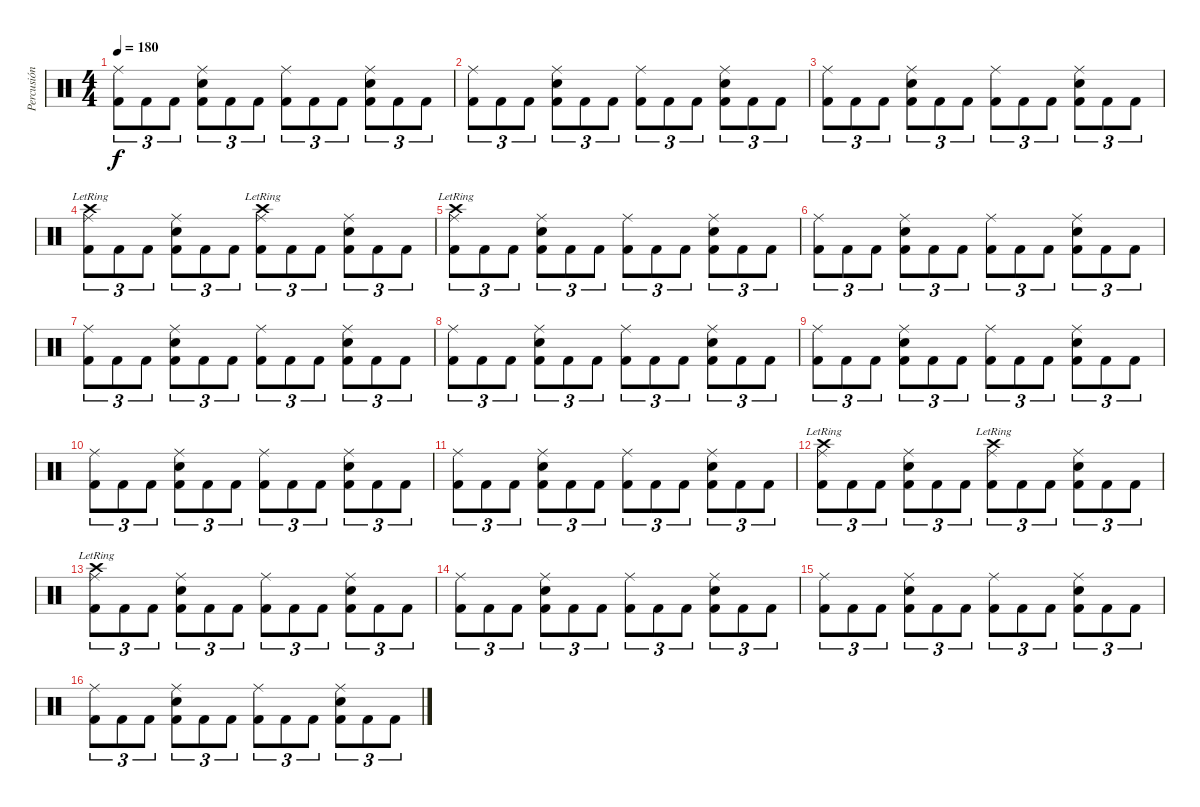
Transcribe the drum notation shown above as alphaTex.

\track ("Percusión" "Percusión") {instrument percussion}
\staff {score}
\articulation defaults
\ts (4 4)
\tempo 180
\clef neutral
\ks c
("Ride (middle)" "Kick (hit) 2").8{tu (3 2) dy f} "Kick (hit) 2".8{tu (3 2)} "Kick (hit) 2".8{tu (3 2)} ("Ride (middle)" "Snare (hit) 2" "Kick (hit) 2").8{tu (3 2)} "Kick (hit) 2".8{tu (3 2)} "Kick (hit) 2".8{tu (3 2)} ("Ride (middle)" "Kick (hit) 2").8{tu (3 2)} "Kick (hit) 2".8{tu (3 2)} "Kick (hit) 2".8{tu (3 2)} ("Ride (middle)" "Snare (hit) 2" "Kick (hit) 2").8{tu (3 2)} "Kick (hit) 2".8{tu (3 2)} "Kick (hit) 2".8{tu (3 2)} |
("Ride (middle)" "Kick (hit) 2").8{tu (3 2)} "Kick (hit) 2".8{tu (3 2)} "Kick (hit) 2".8{tu (3 2)} ("Ride (middle)" "Snare (hit) 2" "Kick (hit) 2").8{tu (3 2)} "Kick (hit) 2".8{tu (3 2)} "Kick (hit) 2".8{tu (3 2)} ("Ride (middle)" "Kick (hit) 2").8{tu (3 2)} "Kick (hit) 2".8{tu (3 2)} "Kick (hit) 2".8{tu (3 2)} ("Ride (middle)" "Snare (hit) 2" "Kick (hit) 2").8{tu (3 2)} "Kick (hit) 2".8{tu (3 2)} "Kick (hit) 2".8{tu (3 2)} |
("Ride (middle)" "Kick (hit) 2").8{tu (3 2)} "Kick (hit) 2".8{tu (3 2)} "Kick (hit) 2".8{tu (3 2)} ("Ride (middle)" "Snare (hit) 2" "Kick (hit) 2").8{tu (3 2)} "Kick (hit) 2".8{tu (3 2)} "Kick (hit) 2".8{tu (3 2)} ("Ride (middle)" "Kick (hit) 2").8{tu (3 2)} "Kick (hit) 2".8{tu (3 2)} "Kick (hit) 2".8{tu (3 2)} ("Ride (middle)" "Snare (hit) 2" "Kick (hit) 2").8{tu (3 2)} "Kick (hit) 2".8{tu (3 2)} "Kick (hit) 2".8{tu (3 2)} |
("Crash high (hit)"{lr} "Ride (middle)" "Kick (hit) 2").8{tu (3 2)} "Kick (hit) 2".8{tu (3 2)} "Kick (hit) 2".8{tu (3 2)} ("Ride (middle)" "Snare (hit) 2" "Kick (hit) 2").8{tu (3 2)} "Kick (hit) 2".8{tu (3 2)} "Kick (hit) 2".8{tu (3 2)} ("Crash high (hit)"{lr} "Ride (middle)" "Kick (hit) 2").8{tu (3 2)} "Kick (hit) 2".8{tu (3 2)} "Kick (hit) 2".8{tu (3 2)} ("Ride (middle)" "Snare (hit) 2" "Kick (hit) 2").8{tu (3 2)} "Kick (hit) 2".8{tu (3 2)} "Kick (hit) 2".8{tu (3 2)} |
("Crash high (hit)"{lr} "Ride (middle)" "Kick (hit) 2").8{tu (3 2)} "Kick (hit) 2".8{tu (3 2)} "Kick (hit) 2".8{tu (3 2)} ("Ride (middle)" "Snare (hit) 2" "Kick (hit) 2").8{tu (3 2)} "Kick (hit) 2".8{tu (3 2)} "Kick (hit) 2".8{tu (3 2)} ("Ride (middle)" "Kick (hit) 2").8{tu (3 2)} "Kick (hit) 2".8{tu (3 2)} "Kick (hit) 2".8{tu (3 2)} ("Ride (middle)" "Snare (hit) 2" "Kick (hit) 2").8{tu (3 2)} "Kick (hit) 2".8{tu (3 2)} "Kick (hit) 2".8{tu (3 2)} |
("Ride (middle)" "Kick (hit) 2").8{tu (3 2)} "Kick (hit) 2".8{tu (3 2)} "Kick (hit) 2".8{tu (3 2)} ("Ride (middle)" "Snare (hit) 2" "Kick (hit) 2").8{tu (3 2)} "Kick (hit) 2".8{tu (3 2)} "Kick (hit) 2".8{tu (3 2)} ("Ride (middle)" "Kick (hit) 2").8{tu (3 2)} "Kick (hit) 2".8{tu (3 2)} "Kick (hit) 2".8{tu (3 2)} ("Ride (middle)" "Snare (hit) 2" "Kick (hit) 2").8{tu (3 2)} "Kick (hit) 2".8{tu (3 2)} "Kick (hit) 2".8{tu (3 2)} |
("Ride (middle)" "Kick (hit) 2").8{tu (3 2)} "Kick (hit) 2".8{tu (3 2)} "Kick (hit) 2".8{tu (3 2)} ("Ride (middle)" "Snare (hit) 2" "Kick (hit) 2").8{tu (3 2)} "Kick (hit) 2".8{tu (3 2)} "Kick (hit) 2".8{tu (3 2)} ("Ride (middle)" "Kick (hit) 2").8{tu (3 2)} "Kick (hit) 2".8{tu (3 2)} "Kick (hit) 2".8{tu (3 2)} ("Ride (middle)" "Snare (hit) 2" "Kick (hit) 2").8{tu (3 2)} "Kick (hit) 2".8{tu (3 2)} "Kick (hit) 2".8{tu (3 2)} |
("Ride (middle)" "Kick (hit) 2").8{tu (3 2)} "Kick (hit) 2".8{tu (3 2)} "Kick (hit) 2".8{tu (3 2)} ("Ride (middle)" "Snare (hit) 2" "Kick (hit) 2").8{tu (3 2)} "Kick (hit) 2".8{tu (3 2)} "Kick (hit) 2".8{tu (3 2)} ("Ride (middle)" "Kick (hit) 2").8{tu (3 2)} "Kick (hit) 2".8{tu (3 2)} "Kick (hit) 2".8{tu (3 2)} ("Ride (middle)" "Snare (hit) 2" "Kick (hit) 2").8{tu (3 2)} "Kick (hit) 2".8{tu (3 2)} "Kick (hit) 2".8{tu (3 2)} |
("Ride (middle)" "Kick (hit) 2").8{tu (3 2)} "Kick (hit) 2".8{tu (3 2)} "Kick (hit) 2".8{tu (3 2)} ("Ride (middle)" "Snare (hit) 2" "Kick (hit) 2").8{tu (3 2)} "Kick (hit) 2".8{tu (3 2)} "Kick (hit) 2".8{tu (3 2)} ("Ride (middle)" "Kick (hit) 2").8{tu (3 2)} "Kick (hit) 2".8{tu (3 2)} "Kick (hit) 2".8{tu (3 2)} ("Ride (middle)" "Snare (hit) 2" "Kick (hit) 2").8{tu (3 2)} "Kick (hit) 2".8{tu (3 2)} "Kick (hit) 2".8{tu (3 2)} |
("Ride (middle)" "Kick (hit) 2").8{tu (3 2)} "Kick (hit) 2".8{tu (3 2)} "Kick (hit) 2".8{tu (3 2)} ("Ride (middle)" "Snare (hit) 2" "Kick (hit) 2").8{tu (3 2)} "Kick (hit) 2".8{tu (3 2)} "Kick (hit) 2".8{tu (3 2)} ("Ride (middle)" "Kick (hit) 2").8{tu (3 2)} "Kick (hit) 2".8{tu (3 2)} "Kick (hit) 2".8{tu (3 2)} ("Ride (middle)" "Snare (hit) 2" "Kick (hit) 2").8{tu (3 2)} "Kick (hit) 2".8{tu (3 2)} "Kick (hit) 2".8{tu (3 2)} |
("Ride (middle)" "Kick (hit) 2").8{tu (3 2)} "Kick (hit) 2".8{tu (3 2)} "Kick (hit) 2".8{tu (3 2)} ("Ride (middle)" "Snare (hit) 2" "Kick (hit) 2").8{tu (3 2)} "Kick (hit) 2".8{tu (3 2)} "Kick (hit) 2".8{tu (3 2)} ("Ride (middle)" "Kick (hit) 2").8{tu (3 2)} "Kick (hit) 2".8{tu (3 2)} "Kick (hit) 2".8{tu (3 2)} ("Ride (middle)" "Snare (hit) 2" "Kick (hit) 2").8{tu (3 2)} "Kick (hit) 2".8{tu (3 2)} "Kick (hit) 2".8{tu (3 2)} |
("Crash high (hit)"{lr} "Ride (middle)" "Kick (hit) 2").8{tu (3 2)} "Kick (hit) 2".8{tu (3 2)} "Kick (hit) 2".8{tu (3 2)} ("Ride (middle)" "Snare (hit) 2" "Kick (hit) 2").8{tu (3 2)} "Kick (hit) 2".8{tu (3 2)} "Kick (hit) 2".8{tu (3 2)} ("Crash high (hit)"{lr} "Ride (middle)" "Kick (hit) 2").8{tu (3 2)} "Kick (hit) 2".8{tu (3 2)} "Kick (hit) 2".8{tu (3 2)} ("Ride (middle)" "Snare (hit) 2" "Kick (hit) 2").8{tu (3 2)} "Kick (hit) 2".8{tu (3 2)} "Kick (hit) 2".8{tu (3 2)} |
("Crash high (hit)"{lr} "Ride (middle)" "Kick (hit) 2").8{tu (3 2)} "Kick (hit) 2".8{tu (3 2)} "Kick (hit) 2".8{tu (3 2)} ("Ride (middle)" "Snare (hit) 2" "Kick (hit) 2").8{tu (3 2)} "Kick (hit) 2".8{tu (3 2)} "Kick (hit) 2".8{tu (3 2)} ("Ride (middle)" "Kick (hit) 2").8{tu (3 2)} "Kick (hit) 2".8{tu (3 2)} "Kick (hit) 2".8{tu (3 2)} ("Ride (middle)" "Snare (hit) 2" "Kick (hit) 2").8{tu (3 2)} "Kick (hit) 2".8{tu (3 2)} "Kick (hit) 2".8{tu (3 2)} |
("Ride (middle)" "Kick (hit) 2").8{tu (3 2)} "Kick (hit) 2".8{tu (3 2)} "Kick (hit) 2".8{tu (3 2)} ("Ride (middle)" "Snare (hit) 2" "Kick (hit) 2").8{tu (3 2)} "Kick (hit) 2".8{tu (3 2)} "Kick (hit) 2".8{tu (3 2)} ("Ride (middle)" "Kick (hit) 2").8{tu (3 2)} "Kick (hit) 2".8{tu (3 2)} "Kick (hit) 2".8{tu (3 2)} ("Ride (middle)" "Snare (hit) 2" "Kick (hit) 2").8{tu (3 2)} "Kick (hit) 2".8{tu (3 2)} "Kick (hit) 2".8{tu (3 2)} |
("Ride (middle)" "Kick (hit) 2").8{tu (3 2)} "Kick (hit) 2".8{tu (3 2)} "Kick (hit) 2".8{tu (3 2)} ("Ride (middle)" "Snare (hit) 2" "Kick (hit) 2").8{tu (3 2)} "Kick (hit) 2".8{tu (3 2)} "Kick (hit) 2".8{tu (3 2)} ("Ride (middle)" "Kick (hit) 2").8{tu (3 2)} "Kick (hit) 2".8{tu (3 2)} "Kick (hit) 2".8{tu (3 2)} ("Ride (middle)" "Snare (hit) 2" "Kick (hit) 2").8{tu (3 2)} "Kick (hit) 2".8{tu (3 2)} "Kick (hit) 2".8{tu (3 2)} |
("Ride (middle)" "Kick (hit) 2").8{tu (3 2)} "Kick (hit) 2".8{tu (3 2)} "Kick (hit) 2".8{tu (3 2)} ("Ride (middle)" "Snare (hit) 2" "Kick (hit) 2").8{tu (3 2)} "Kick (hit) 2".8{tu (3 2)} "Kick (hit) 2".8{tu (3 2)} ("Ride (middle)" "Kick (hit) 2").8{tu (3 2)} "Kick (hit) 2".8{tu (3 2)} "Kick (hit) 2".8{tu (3 2)} ("Ride (middle)" "Snare (hit) 2" "Kick (hit) 2").8{tu (3 2)} "Kick (hit) 2".8{tu (3 2)} "Kick (hit) 2".8{tu (3 2)}
